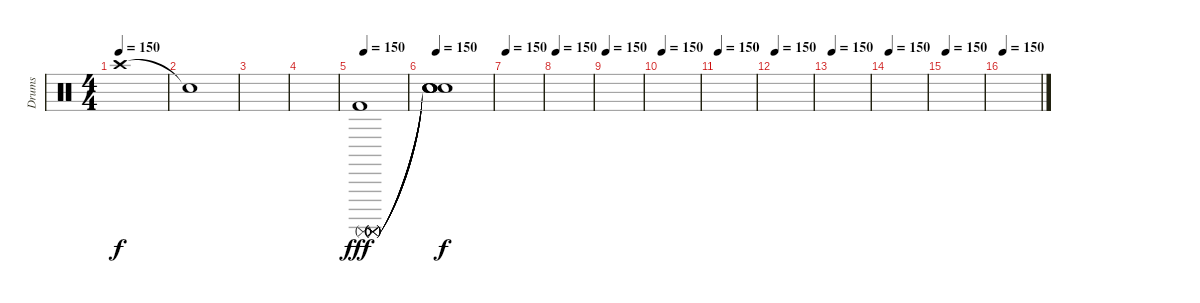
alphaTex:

\track ("Drums" "Drums") {instrument percussion}
\staff {score}
\articulation defaults
\ts (4 4)
\tempo 150
\clef neutral
\ks c "Crash high (hit)".1{dy f}
|
"Snare (hit)"{t}.1 |
|
|
\tempo 150
("Surdo (mute)" "Surdo (mute)" "Surdo (mute)" "Surdo (mute)" "Surdo (mute)" "Kick (hit) 2").1{dy fff volume 16 balance 16} |
\tempo 150
("Snare (hit)"{t} "Snare (hit)"{t} "Snare (hit)"{t} "Snare (hit)"{t} "Snare (hit)"{t}).1{dy f volume 13 balance 8} |
\tempo 150
|
\tempo 150
|
\tempo 150
|
\tempo 150
|
\tempo 150
|
\tempo 150
|
\tempo 150
|
\tempo 150
|
\tempo 150
|
\tempo 150
